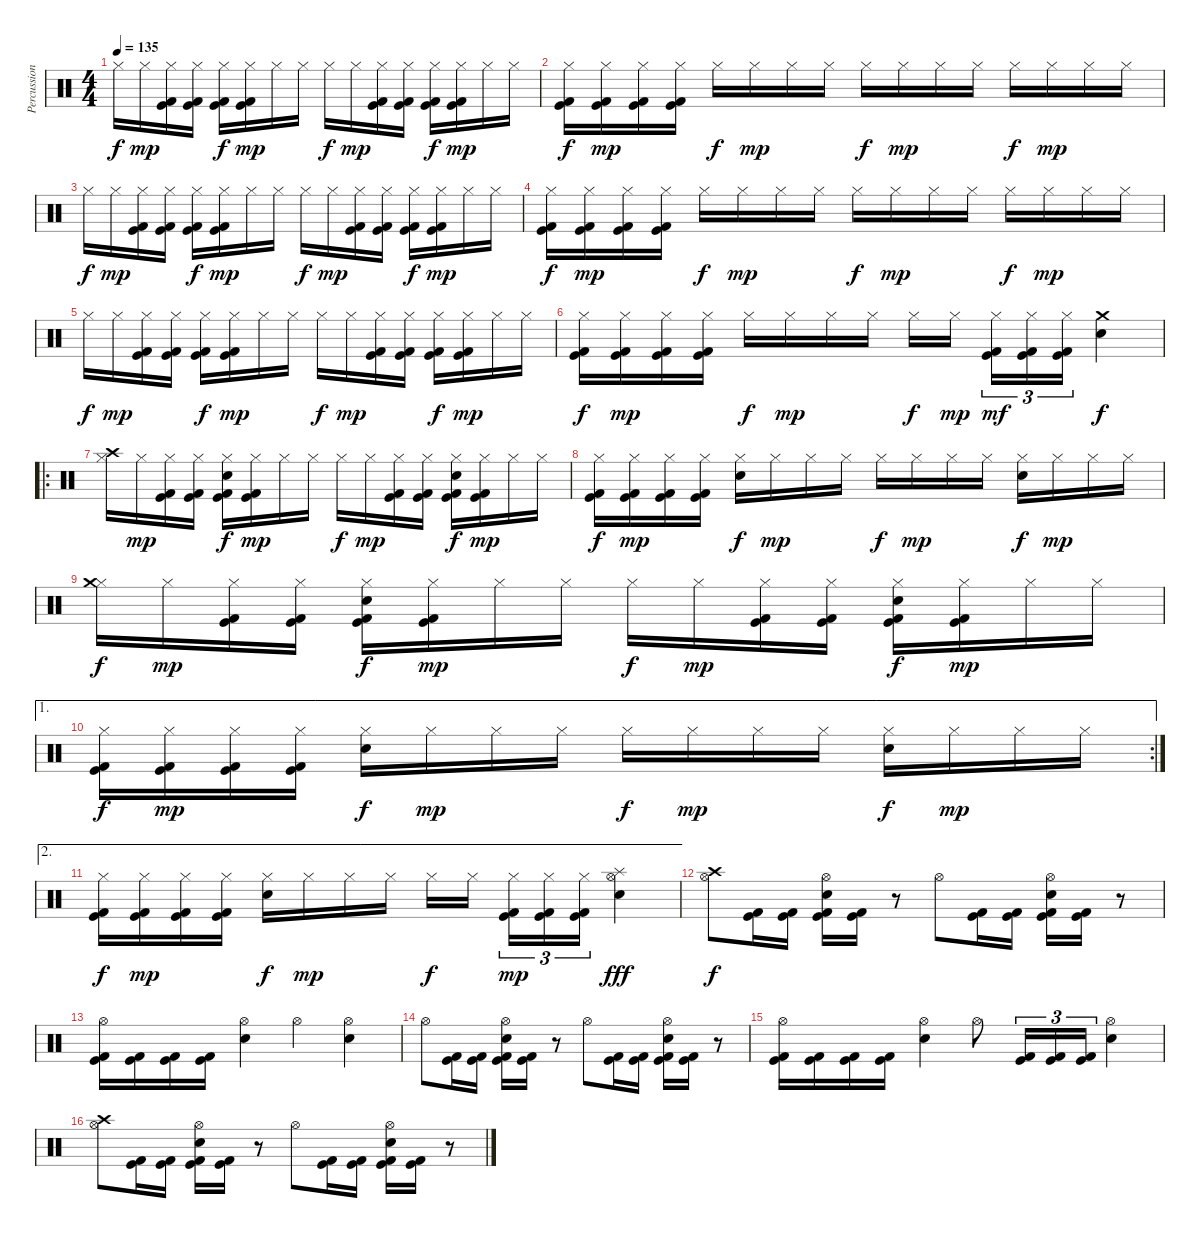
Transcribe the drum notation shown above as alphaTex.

\track ("Percussion" "Percussion") {instrument percussion}
\staff {score}
\articulation defaults
\ts (4 4)
\tempo 135
\clef neutral
\ks c "Hi-Hat (closed)".16{dy f} "Hi-Hat (closed)".16{dy mp}
("Hi-Hat (closed)" "Kick (hit) 2" "Kick (hit)").16 ("Hi-Hat (closed)" "Kick (hit) 2" "Kick (hit)").16 ("Hi-Hat (closed)" "Kick (hit) 2" "Kick (hit)").16{dy f} ("Hi-Hat (closed)" "Kick (hit) 2" "Kick (hit)").16{dy mp} "Hi-Hat (closed)".16 "Hi-Hat (closed)".16 "Hi-Hat (closed)".16{dy f} "Hi-Hat (closed)".16{dy mp} ("Hi-Hat (closed)" "Kick (hit) 2" "Kick (hit)").16 ("Hi-Hat (closed)" "Kick (hit) 2" "Kick (hit)").16 ("Hi-Hat (closed)" "Kick (hit) 2" "Kick (hit)").16{dy f} ("Hi-Hat (closed)" "Kick (hit) 2" "Kick (hit)").16{dy mp} "Hi-Hat (closed)".16 "Hi-Hat (closed)".16 |
("Hi-Hat (closed)" "Kick (hit) 2" "Kick (hit)").16{dy f} ("Hi-Hat (closed)" "Kick (hit) 2" "Kick (hit)").16{dy mp} ("Hi-Hat (closed)" "Kick (hit) 2" "Kick (hit)").16 ("Hi-Hat (closed)" "Kick (hit) 2" "Kick (hit)").16 "Hi-Hat (closed)".16{dy f} "Hi-Hat (closed)".16{dy mp} "Hi-Hat (closed)".16 "Hi-Hat (closed)".16 "Hi-Hat (closed)".16{dy f} "Hi-Hat (closed)".16{dy mp} "Hi-Hat (closed)".16 "Hi-Hat (closed)".16 "Hi-Hat (closed)".16{dy f} "Hi-Hat (closed)".16{dy mp} "Hi-Hat (closed)".16 "Hi-Hat (closed)".16 |
"Hi-Hat (closed)".16{dy f} "Hi-Hat (closed)".16{dy mp} ("Hi-Hat (closed)" "Kick (hit) 2" "Kick (hit)").16 ("Hi-Hat (closed)" "Kick (hit) 2" "Kick (hit)").16 ("Hi-Hat (closed)" "Kick (hit) 2" "Kick (hit)").16{dy f} ("Hi-Hat (closed)" "Kick (hit) 2" "Kick (hit)").16{dy mp} "Hi-Hat (closed)".16 "Hi-Hat (closed)".16 "Hi-Hat (closed)".16{dy f} "Hi-Hat (closed)".16{dy mp} ("Hi-Hat (closed)" "Kick (hit) 2" "Kick (hit)").16 ("Hi-Hat (closed)" "Kick (hit) 2" "Kick (hit)").16 ("Hi-Hat (closed)" "Kick (hit) 2" "Kick (hit)").16{dy f} ("Hi-Hat (closed)" "Kick (hit) 2" "Kick (hit)").16{dy mp} "Hi-Hat (closed)".16 "Hi-Hat (closed)".16 |
("Hi-Hat (closed)" "Kick (hit) 2" "Kick (hit)").16{dy f} ("Hi-Hat (closed)" "Kick (hit) 2" "Kick (hit)").16{dy mp} ("Hi-Hat (closed)" "Kick (hit) 2" "Kick (hit)").16 ("Hi-Hat (closed)" "Kick (hit) 2" "Kick (hit)").16 "Hi-Hat (closed)".16{dy f} "Hi-Hat (closed)".16{dy mp} "Hi-Hat (closed)".16 "Hi-Hat (closed)".16 "Hi-Hat (closed)".16{dy f} "Hi-Hat (closed)".16{dy mp} "Hi-Hat (closed)".16 "Hi-Hat (closed)".16 "Hi-Hat (closed)".16{dy f} "Hi-Hat (closed)".16{dy mp} "Hi-Hat (closed)".16 "Hi-Hat (closed)".16 |
"Hi-Hat (closed)".16{dy f} "Hi-Hat (closed)".16{dy mp} ("Hi-Hat (closed)" "Kick (hit) 2" "Kick (hit)").16 ("Hi-Hat (closed)" "Kick (hit) 2" "Kick (hit)").16 ("Hi-Hat (closed)" "Kick (hit) 2" "Kick (hit)").16{dy f} ("Hi-Hat (closed)" "Kick (hit) 2" "Kick (hit)").16{dy mp} "Hi-Hat (closed)".16 "Hi-Hat (closed)".16 "Hi-Hat (closed)".16{dy f} "Hi-Hat (closed)".16{dy mp} ("Hi-Hat (closed)" "Kick (hit) 2" "Kick (hit)").16 ("Hi-Hat (closed)" "Kick (hit) 2" "Kick (hit)").16 ("Hi-Hat (closed)" "Kick (hit) 2" "Kick (hit)").16{dy f} ("Hi-Hat (closed)" "Kick (hit) 2" "Kick (hit)").16{dy mp} "Hi-Hat (closed)".16 "Hi-Hat (closed)".16 |
("Hi-Hat (closed)" "Kick (hit) 2" "Kick (hit)").16{dy f} ("Hi-Hat (closed)" "Kick (hit) 2" "Kick (hit)").16{dy mp} ("Hi-Hat (closed)" "Kick (hit) 2" "Kick (hit)").16 ("Hi-Hat (closed)" "Kick (hit) 2" "Kick (hit)").16 "Hi-Hat (closed)".16{dy f} "Hi-Hat (closed)".16{dy mp} "Hi-Hat (closed)".16 "Hi-Hat (closed)".16 "Hi-Hat (closed)".16{dy f} "Hi-Hat (closed)".16{dy mp} ("Hi-Hat (closed)" "Kick (hit) 2" "Kick (hit)").16{tu (3 2) dy mf} ("Hi-Hat (closed)" "Kick (hit) 2" "Kick (hit)").16{tu (3 2)} ("Hi-Hat (closed)" "Kick (hit) 2" "Kick (hit)").16{tu (3 2)} ("Crash medium (hit)" "Snare (hit) 2").4{dy f} |
\ro
("Hi-Hat (closed)" "Crash high (hit)").16 "Hi-Hat (closed)".16{dy mp} ("Hi-Hat (closed)" "Kick (hit) 2" "Kick (hit)").16 ("Hi-Hat (closed)" "Kick (hit) 2" "Kick (hit)").16 ("Hi-Hat (closed)" "Snare (hit) 2" "Kick (hit) 2" "Kick (hit)").16{dy f} ("Hi-Hat (closed)" "Kick (hit) 2" "Kick (hit)").16{dy mp} "Hi-Hat (closed)".16 "Hi-Hat (closed)".16 "Hi-Hat (closed)".16{dy f} "Hi-Hat (closed)".16{dy mp} ("Hi-Hat (closed)" "Kick (hit) 2" "Kick (hit)").16 ("Hi-Hat (closed)" "Kick (hit) 2" "Kick (hit)").16 ("Hi-Hat (closed)" "Snare (hit) 2" "Kick (hit) 2" "Kick (hit)").16{dy f} ("Hi-Hat (closed)" "Kick (hit) 2" "Kick (hit)").16{dy mp} "Hi-Hat (closed)".16 "Hi-Hat (closed)".16 |
("Hi-Hat (closed)" "Kick (hit) 2" "Kick (hit)").16{dy f} ("Hi-Hat (closed)" "Kick (hit) 2" "Kick (hit)").16{dy mp} ("Hi-Hat (closed)" "Kick (hit) 2" "Kick (hit)").16 ("Hi-Hat (closed)" "Kick (hit) 2" "Kick (hit)").16 ("Hi-Hat (closed)" "Snare (hit) 2").16{dy f} "Hi-Hat (closed)".16{dy mp} "Hi-Hat (closed)".16 "Hi-Hat (closed)".16 "Hi-Hat (closed)".16{dy f} "Hi-Hat (closed)".16{dy mp} "Hi-Hat (closed)".16 "Hi-Hat (closed)".16 ("Hi-Hat (closed)" "Snare (hit) 2").16{dy f} "Hi-Hat (closed)".16{dy mp} "Hi-Hat (closed)".16 "Hi-Hat (closed)".16 |
("Hi-Hat (closed)" "Crash medium (hit)").16{dy f} "Hi-Hat (closed)".16{dy mp} ("Hi-Hat (closed)" "Kick (hit) 2" "Kick (hit)").16 ("Hi-Hat (closed)" "Kick (hit) 2" "Kick (hit)").16 ("Hi-Hat (closed)" "Snare (hit) 2" "Kick (hit) 2" "Kick (hit)").16{dy f} ("Hi-Hat (closed)" "Kick (hit) 2" "Kick (hit)").16{dy mp} "Hi-Hat (closed)".16 "Hi-Hat (closed)".16 "Hi-Hat (closed)".16{dy f} "Hi-Hat (closed)".16{dy mp} ("Hi-Hat (closed)" "Kick (hit) 2" "Kick (hit)").16 ("Hi-Hat (closed)" "Kick (hit) 2" "Kick (hit)").16 ("Hi-Hat (closed)" "Snare (hit) 2" "Kick (hit) 2" "Kick (hit)").16{dy f} ("Hi-Hat (closed)" "Kick (hit) 2" "Kick (hit)").16{dy mp} "Hi-Hat (closed)".16 "Hi-Hat (closed)".16 |
\ae 1
\rc 2
("Hi-Hat (closed)" "Kick (hit) 2" "Kick (hit)").16{dy f} ("Hi-Hat (closed)" "Kick (hit) 2" "Kick (hit)").16{dy mp} ("Hi-Hat (closed)" "Kick (hit) 2" "Kick (hit)").16 ("Hi-Hat (closed)" "Kick (hit) 2" "Kick (hit)").16 ("Hi-Hat (closed)" "Snare (hit) 2").16{dy f} "Hi-Hat (closed)".16{dy mp} "Hi-Hat (closed)".16 "Hi-Hat (closed)".16 "Hi-Hat (closed)".16{dy f} "Hi-Hat (closed)".16{dy mp} "Hi-Hat (closed)".16 "Hi-Hat (closed)".16 ("Hi-Hat (closed)" "Snare (hit) 2").16{dy f} "Hi-Hat (closed)".16{dy mp} "Hi-Hat (closed)".16 "Hi-Hat (closed)".16 |
\ae 2
("Hi-Hat (closed)" "Kick (hit) 2" "Kick (hit)").16{dy f} ("Hi-Hat (closed)" "Kick (hit) 2" "Kick (hit)").16{dy mp} ("Hi-Hat (closed)" "Kick (hit) 2" "Kick (hit)").16 ("Hi-Hat (closed)" "Kick (hit) 2" "Kick (hit)").16 ("Hi-Hat (closed)" "Snare (hit) 2").16{dy f} "Hi-Hat (closed)".16{dy mp} "Hi-Hat (closed)".16 "Hi-Hat (closed)".16 "Hi-Hat (closed)".16{dy f} "Hi-Hat (closed)".16 ("Hi-Hat (closed)" "Kick (hit) 2" "Kick (hit)").16{tu (3 2) dy mp} ("Hi-Hat (closed)" "Kick (hit) 2" "Kick (hit)").16{tu (3 2)} ("Hi-Hat (closed)" "Kick (hit) 2" "Kick (hit)").16{tu (3 2)} ("Hi-Hat (open)" "Splash (hit)" "Snare (hit) 2").4{dy fff} |
("Hi-Hat (open)" "Crash high (hit)").8{dy f} ("Kick (hit) 2" "Kick (hit)").16 ("Kick (hit) 2" "Kick (hit)").16 ("Hi-Hat (open)" "Snare (hit) 2" "Kick (hit) 2" "Kick (hit)").16 ("Kick (hit) 2" "Kick (hit)").16 r.8 "Hi-Hat (open)".8 ("Kick (hit) 2" "Kick (hit)").16 ("Kick (hit) 2" "Kick (hit)").16 ("Hi-Hat (open)" "Snare (hit) 2" "Kick (hit) 2" "Kick (hit)").16 ("Kick (hit) 2" "Kick (hit)").16 r.8 |
("Hi-Hat (open)" "Kick (hit) 2" "Kick (hit)").16 ("Kick (hit) 2" "Kick (hit)").16 ("Kick (hit) 2" "Kick (hit)").16 ("Kick (hit) 2" "Kick (hit)").16 ("Hi-Hat (open)" "Snare (hit) 2").4 "Hi-Hat (open)".4 ("Hi-Hat (open)" "Snare (hit) 2").4 |
"Hi-Hat (open)".8 ("Kick (hit) 2" "Kick (hit)").16 ("Kick (hit) 2" "Kick (hit)").16 ("Hi-Hat (open)" "Snare (hit) 2" "Kick (hit) 2" "Kick (hit)").16 ("Kick (hit) 2" "Kick (hit)").16 r.8 "Hi-Hat (open)".8 ("Kick (hit) 2" "Kick (hit)").16 ("Kick (hit) 2" "Kick (hit)").16 ("Hi-Hat (open)" "Snare (hit) 2" "Kick (hit) 2" "Kick (hit)").16 ("Kick (hit) 2" "Kick (hit)").16 r.8 |
("Hi-Hat (open)" "Kick (hit) 2" "Kick (hit)").16 ("Kick (hit) 2" "Kick (hit)").16 ("Kick (hit) 2" "Kick (hit)").16 ("Kick (hit) 2" "Kick (hit)").16 ("Hi-Hat (open)" "Snare (hit) 2").4 "Hi-Hat (open)".8 ("Kick (hit) 2" "Kick (hit)").16{tu (3 2)} ("Kick (hit) 2" "Kick (hit)").16{tu (3 2)} ("Kick (hit) 2" "Kick (hit)").16{tu (3 2)} ("Hi-Hat (open)" "Snare (hit) 2").4 |
("Hi-Hat (open)" "Crash high (hit)").8 ("Kick (hit) 2" "Kick (hit)").16 ("Kick (hit) 2" "Kick (hit)").16 ("Hi-Hat (open)" "Snare (hit) 2" "Kick (hit) 2" "Kick (hit)").16 ("Kick (hit) 2" "Kick (hit)").16 r.8 "Hi-Hat (open)".8 ("Kick (hit) 2" "Kick (hit)").16 ("Kick (hit) 2" "Kick (hit)").16 ("Hi-Hat (open)" "Snare (hit) 2" "Kick (hit) 2" "Kick (hit)").16 ("Kick (hit) 2" "Kick (hit)").16 r.8
